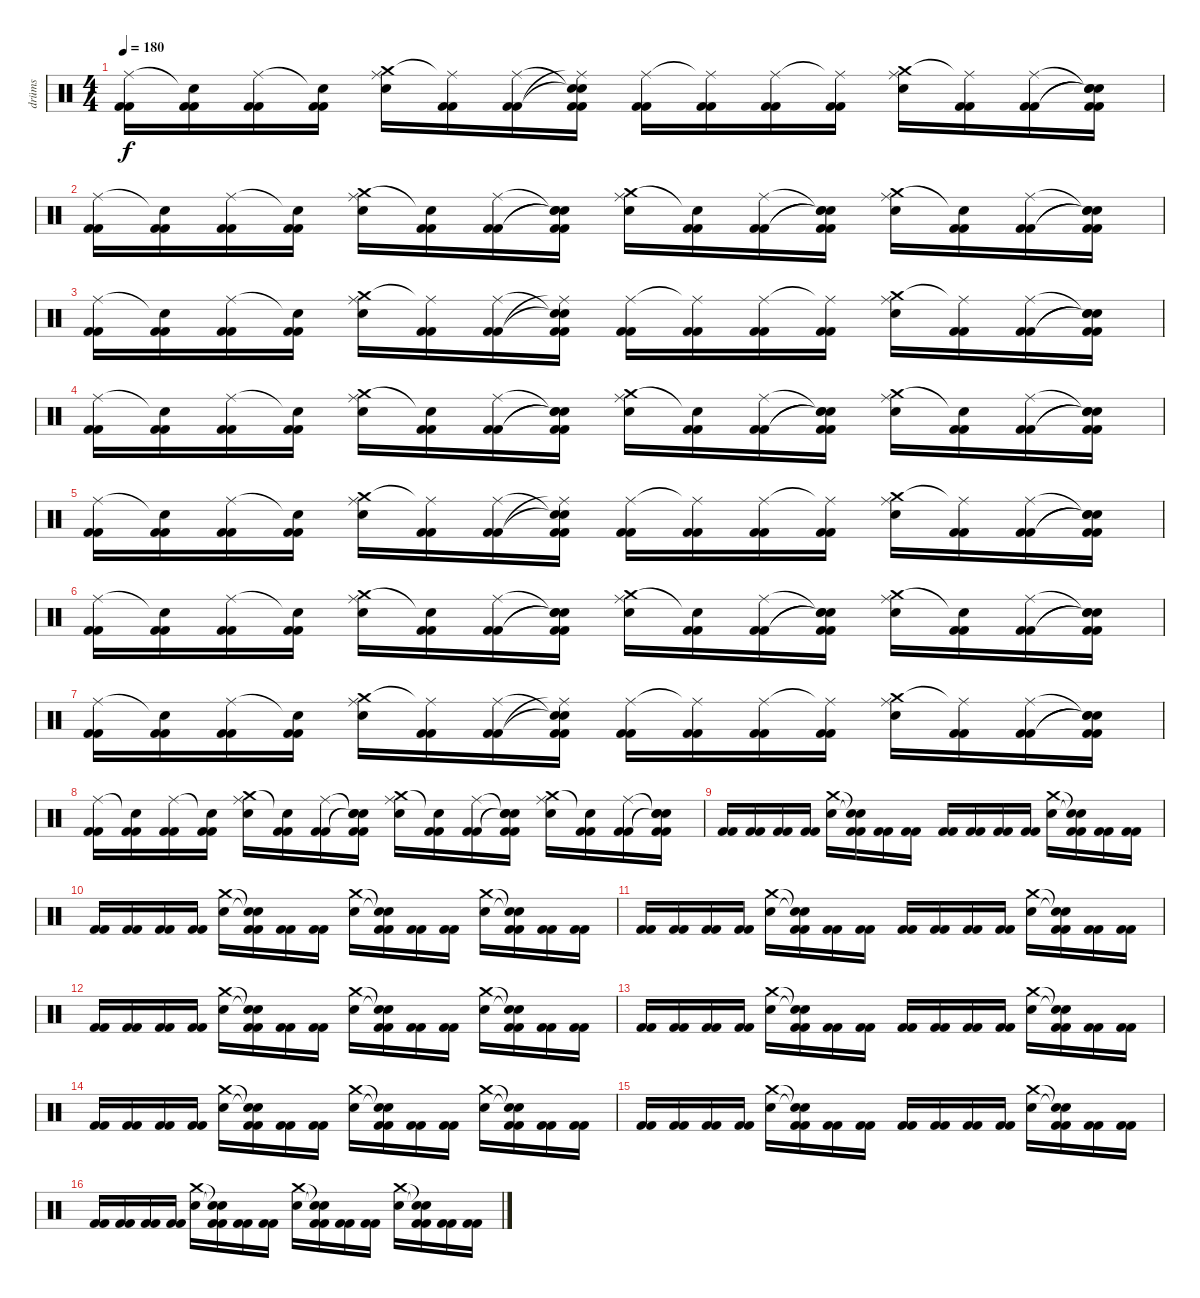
\track ("drüms" "drüms") {instrument percussion}
\staff {score}
\articulation defaults
\ts (4 4)
\tempo 180
\clef neutral
\ks c
("Ride (middle)" "Kick (hit) 2" "Kick (hit) 2").16{dy f} ("Snare (hit)"{t} "Kick (hit) 2" "Kick (hit) 2").16 ("Ride (middle)" "Kick (hit) 2" "Kick (hit) 2").16 ("Snare (hit)"{t} "Kick (hit) 2" "Kick (hit) 2").16 ("Crash medium (hit)" "Electric Snare (hit)" "Ride (middle)").16 ("Ride (middle)"{t} "Kick (hit) 2" "Kick (hit) 2").16 ("Ride (middle)" "Kick (hit) 2" "Kick (hit) 2").16 ("Snare (hit)"{t} "Snare (hit)"{t} "Ride (middle)"{t} "Kick (hit) 2" "Kick (hit) 2").16 ("Ride (middle)" "Kick (hit) 2" "Kick (hit) 2").16 ("Ride (middle)"{t} "Kick (hit) 2" "Kick (hit) 2").16 ("Ride (middle)" "Kick (hit) 2" "Kick (hit) 2").16 ("Ride (middle)"{t} "Kick (hit) 2" "Kick (hit) 2").16 ("Crash medium (hit)" "Electric Snare (hit)" "Ride (middle)").16 ("Ride (middle)"{t} "Kick (hit) 2" "Kick (hit) 2").16 ("Ride (middle)" "Kick (hit) 2" "Kick (hit) 2").16 ("Snare (hit)"{t} "Snare (hit)"{t} "Snare (hit)"{t} "Kick (hit) 2" "Kick (hit) 2").16 |
("Ride (middle)" "Kick (hit) 2" "Kick (hit) 2").16 ("Snare (hit)"{t} "Kick (hit) 2" "Kick (hit) 2").16 ("Ride (middle)" "Kick (hit) 2" "Kick (hit) 2").16 ("Snare (hit)"{t} "Kick (hit) 2" "Kick (hit) 2").16 ("Crash medium (hit)" "Electric Snare (hit)" "Ride (middle)").16 ("Snare (hit)"{t} "Kick (hit) 2" "Kick (hit) 2").16 ("Ride (middle)" "Kick (hit) 2" "Kick (hit) 2").16 ("Snare (hit)"{t} "Snare (hit)"{t} "Snare (hit)"{t} "Kick (hit) 2" "Kick (hit) 2").16 ("Crash medium (hit)" "Electric Snare (hit)" "Ride (middle)").16 ("Snare (hit)"{t} "Kick (hit) 2" "Kick (hit) 2").16 ("Ride (middle)" "Kick (hit) 2" "Kick (hit) 2").16 ("Snare (hit)"{t} "Snare (hit)"{t} "Snare (hit)"{t} "Kick (hit) 2" "Kick (hit) 2").16 ("Crash medium (hit)" "Electric Snare (hit)" "Ride (middle)").16 ("Snare (hit)"{t} "Kick (hit) 2" "Kick (hit) 2").16 ("Ride (middle)" "Kick (hit) 2" "Kick (hit) 2").16 ("Snare (hit)"{t} "Snare (hit)"{t} "Snare (hit)"{t} "Kick (hit) 2" "Kick (hit) 2").16 |
("Ride (middle)" "Kick (hit) 2" "Kick (hit) 2").16 ("Snare (hit)"{t} "Kick (hit) 2" "Kick (hit) 2").16 ("Ride (middle)" "Kick (hit) 2" "Kick (hit) 2").16 ("Snare (hit)"{t} "Kick (hit) 2" "Kick (hit) 2").16 ("Crash medium (hit)" "Electric Snare (hit)" "Ride (middle)").16 ("Ride (middle)"{t} "Kick (hit) 2" "Kick (hit) 2").16 ("Ride (middle)" "Kick (hit) 2" "Kick (hit) 2").16 ("Snare (hit)"{t} "Snare (hit)"{t} "Ride (middle)"{t} "Kick (hit) 2" "Kick (hit) 2").16 ("Ride (middle)" "Kick (hit) 2" "Kick (hit) 2").16 ("Ride (middle)"{t} "Kick (hit) 2" "Kick (hit) 2").16 ("Ride (middle)" "Kick (hit) 2" "Kick (hit) 2").16 ("Ride (middle)"{t} "Kick (hit) 2" "Kick (hit) 2").16 ("Crash medium (hit)" "Electric Snare (hit)" "Ride (middle)").16 ("Ride (middle)"{t} "Kick (hit) 2" "Kick (hit) 2").16 ("Ride (middle)" "Kick (hit) 2" "Kick (hit) 2").16 ("Snare (hit)"{t} "Snare (hit)"{t} "Snare (hit)"{t} "Kick (hit) 2" "Kick (hit) 2").16 |
("Ride (middle)" "Kick (hit) 2" "Kick (hit) 2").16 ("Snare (hit)"{t} "Kick (hit) 2" "Kick (hit) 2").16 ("Ride (middle)" "Kick (hit) 2" "Kick (hit) 2").16 ("Snare (hit)"{t} "Kick (hit) 2" "Kick (hit) 2").16 ("Crash medium (hit)" "Electric Snare (hit)" "Ride (middle)").16 ("Snare (hit)"{t} "Kick (hit) 2" "Kick (hit) 2").16 ("Ride (middle)" "Kick (hit) 2" "Kick (hit) 2").16 ("Snare (hit)"{t} "Snare (hit)"{t} "Snare (hit)"{t} "Kick (hit) 2" "Kick (hit) 2").16 ("Crash medium (hit)" "Electric Snare (hit)" "Ride (middle)").16 ("Snare (hit)"{t} "Kick (hit) 2" "Kick (hit) 2").16 ("Ride (middle)" "Kick (hit) 2" "Kick (hit) 2").16 ("Snare (hit)"{t} "Snare (hit)"{t} "Snare (hit)"{t} "Kick (hit) 2" "Kick (hit) 2").16 ("Crash medium (hit)" "Electric Snare (hit)" "Ride (middle)").16 ("Snare (hit)"{t} "Kick (hit) 2" "Kick (hit) 2").16 ("Ride (middle)" "Kick (hit) 2" "Kick (hit) 2").16 ("Snare (hit)"{t} "Snare (hit)"{t} "Snare (hit)"{t} "Kick (hit) 2" "Kick (hit) 2").16 |
("Ride (middle)" "Kick (hit) 2" "Kick (hit) 2").16 ("Snare (hit)"{t} "Kick (hit) 2" "Kick (hit) 2").16 ("Ride (middle)" "Kick (hit) 2" "Kick (hit) 2").16 ("Snare (hit)"{t} "Kick (hit) 2" "Kick (hit) 2").16 ("Crash medium (hit)" "Electric Snare (hit)" "Ride (middle)").16 ("Ride (middle)"{t} "Kick (hit) 2" "Kick (hit) 2").16 ("Ride (middle)" "Kick (hit) 2" "Kick (hit) 2").16 ("Snare (hit)"{t} "Snare (hit)"{t} "Ride (middle)"{t} "Kick (hit) 2" "Kick (hit) 2").16 ("Ride (middle)" "Kick (hit) 2" "Kick (hit) 2").16 ("Ride (middle)"{t} "Kick (hit) 2" "Kick (hit) 2").16 ("Ride (middle)" "Kick (hit) 2" "Kick (hit) 2").16 ("Ride (middle)"{t} "Kick (hit) 2" "Kick (hit) 2").16 ("Crash medium (hit)" "Electric Snare (hit)" "Ride (middle)").16 ("Ride (middle)"{t} "Kick (hit) 2" "Kick (hit) 2").16 ("Ride (middle)" "Kick (hit) 2" "Kick (hit) 2").16 ("Snare (hit)"{t} "Snare (hit)"{t} "Snare (hit)"{t} "Kick (hit) 2" "Kick (hit) 2").16 |
("Ride (middle)" "Kick (hit) 2" "Kick (hit) 2").16 ("Snare (hit)"{t} "Kick (hit) 2" "Kick (hit) 2").16 ("Ride (middle)" "Kick (hit) 2" "Kick (hit) 2").16 ("Snare (hit)"{t} "Kick (hit) 2" "Kick (hit) 2").16 ("Crash medium (hit)" "Electric Snare (hit)" "Ride (middle)").16 ("Snare (hit)"{t} "Kick (hit) 2" "Kick (hit) 2").16 ("Ride (middle)" "Kick (hit) 2" "Kick (hit) 2").16 ("Snare (hit)"{t} "Snare (hit)"{t} "Snare (hit)"{t} "Kick (hit) 2" "Kick (hit) 2").16 ("Crash medium (hit)" "Electric Snare (hit)" "Ride (middle)").16 ("Snare (hit)"{t} "Kick (hit) 2" "Kick (hit) 2").16 ("Ride (middle)" "Kick (hit) 2" "Kick (hit) 2").16 ("Snare (hit)"{t} "Snare (hit)"{t} "Snare (hit)"{t} "Kick (hit) 2" "Kick (hit) 2").16 ("Crash medium (hit)" "Electric Snare (hit)" "Ride (middle)").16 ("Snare (hit)"{t} "Kick (hit) 2" "Kick (hit) 2").16 ("Ride (middle)" "Kick (hit) 2" "Kick (hit) 2").16 ("Snare (hit)"{t} "Snare (hit)"{t} "Snare (hit)"{t} "Kick (hit) 2" "Kick (hit) 2").16 |
("Ride (middle)" "Kick (hit) 2" "Kick (hit) 2").16 ("Snare (hit)"{t} "Kick (hit) 2" "Kick (hit) 2").16 ("Ride (middle)" "Kick (hit) 2" "Kick (hit) 2").16 ("Snare (hit)"{t} "Kick (hit) 2" "Kick (hit) 2").16 ("Crash medium (hit)" "Electric Snare (hit)" "Ride (middle)").16 ("Ride (middle)"{t} "Kick (hit) 2" "Kick (hit) 2").16 ("Ride (middle)" "Kick (hit) 2" "Kick (hit) 2").16 ("Snare (hit)"{t} "Snare (hit)"{t} "Ride (middle)"{t} "Kick (hit) 2" "Kick (hit) 2").16 ("Ride (middle)" "Kick (hit) 2" "Kick (hit) 2").16 ("Ride (middle)"{t} "Kick (hit) 2" "Kick (hit) 2").16 ("Ride (middle)" "Kick (hit) 2" "Kick (hit) 2").16 ("Ride (middle)"{t} "Kick (hit) 2" "Kick (hit) 2").16 ("Crash medium (hit)" "Electric Snare (hit)" "Ride (middle)").16 ("Ride (middle)"{t} "Kick (hit) 2" "Kick (hit) 2").16 ("Ride (middle)" "Kick (hit) 2" "Kick (hit) 2").16 ("Snare (hit)"{t} "Snare (hit)"{t} "Snare (hit)"{t} "Kick (hit) 2" "Kick (hit) 2").16 |
("Ride (middle)" "Kick (hit) 2" "Kick (hit) 2").16 ("Snare (hit)"{t} "Kick (hit) 2" "Kick (hit) 2").16 ("Ride (middle)" "Kick (hit) 2" "Kick (hit) 2").16 ("Snare (hit)"{t} "Kick (hit) 2" "Kick (hit) 2").16 ("Crash medium (hit)" "Electric Snare (hit)" "Ride (middle)").16 ("Snare (hit)"{t} "Kick (hit) 2" "Kick (hit) 2").16 ("Ride (middle)" "Kick (hit) 2" "Kick (hit) 2").16 ("Snare (hit)"{t} "Snare (hit)"{t} "Snare (hit)"{t} "Kick (hit) 2" "Kick (hit) 2").16 ("Crash medium (hit)" "Electric Snare (hit)" "Ride (middle)").16 ("Snare (hit)"{t} "Kick (hit) 2" "Kick (hit) 2").16 ("Ride (middle)" "Kick (hit) 2" "Kick (hit) 2").16 ("Snare (hit)"{t} "Snare (hit)"{t} "Snare (hit)"{t} "Kick (hit) 2" "Kick (hit) 2").16 ("Crash medium (hit)" "Electric Snare (hit)" "Ride (middle)").16 ("Snare (hit)"{t} "Kick (hit) 2" "Kick (hit) 2").16 ("Ride (middle)" "Kick (hit) 2" "Kick (hit) 2").16 ("Snare (hit)"{t} "Snare (hit)"{t} "Snare (hit)"{t} "Kick (hit) 2" "Kick (hit) 2").16 |
("Kick (hit) 2" "Kick (hit) 2").16 ("Kick (hit) 2" "Kick (hit) 2").16 ("Kick (hit) 2" "Kick (hit) 2").16 ("Kick (hit) 2" "Kick (hit) 2").16 ("Crash medium (hit)" "Electric Snare (hit)").16 ("Snare (hit)"{t} "Snare (hit)"{t} "Kick (hit) 2" "Kick (hit) 2").16 ("Kick (hit) 2" "Kick (hit) 2").16 ("Kick (hit) 2" "Kick (hit) 2").16 ("Kick (hit) 2" "Kick (hit) 2").16 ("Kick (hit) 2" "Kick (hit) 2").16 ("Kick (hit) 2" "Kick (hit) 2").16 ("Kick (hit) 2" "Kick (hit) 2").16 ("Crash medium (hit)" "Electric Snare (hit)").16 ("Snare (hit)"{t} "Snare (hit)"{t} "Kick (hit) 2" "Kick (hit) 2").16 ("Kick (hit) 2" "Kick (hit) 2").16 ("Kick (hit) 2" "Kick (hit) 2").16 |
("Kick (hit) 2" "Kick (hit) 2").16 ("Kick (hit) 2" "Kick (hit) 2").16 ("Kick (hit) 2" "Kick (hit) 2").16 ("Kick (hit) 2" "Kick (hit) 2").16 ("Crash medium (hit)" "Electric Snare (hit)").16 ("Snare (hit)"{t} "Snare (hit)"{t} "Kick (hit) 2" "Kick (hit) 2").16 ("Kick (hit) 2" "Kick (hit) 2").16 ("Kick (hit) 2" "Kick (hit) 2").16 ("Crash medium (hit)" "Electric Snare (hit)").16 ("Snare (hit)"{t} "Snare (hit)"{t} "Kick (hit) 2" "Kick (hit) 2").16 ("Kick (hit) 2" "Kick (hit) 2").16 ("Kick (hit) 2" "Kick (hit) 2").16 ("Crash medium (hit)" "Electric Snare (hit)").16 ("Snare (hit)"{t} "Snare (hit)"{t} "Kick (hit) 2" "Kick (hit) 2").16 ("Kick (hit) 2" "Kick (hit) 2").16 ("Kick (hit) 2" "Kick (hit) 2").16 |
("Kick (hit) 2" "Kick (hit) 2").16 ("Kick (hit) 2" "Kick (hit) 2").16 ("Kick (hit) 2" "Kick (hit) 2").16 ("Kick (hit) 2" "Kick (hit) 2").16 ("Crash medium (hit)" "Electric Snare (hit)").16 ("Snare (hit)"{t} "Snare (hit)"{t} "Kick (hit) 2" "Kick (hit) 2").16 ("Kick (hit) 2" "Kick (hit) 2").16 ("Kick (hit) 2" "Kick (hit) 2").16 ("Kick (hit) 2" "Kick (hit) 2").16 ("Kick (hit) 2" "Kick (hit) 2").16 ("Kick (hit) 2" "Kick (hit) 2").16 ("Kick (hit) 2" "Kick (hit) 2").16 ("Crash medium (hit)" "Electric Snare (hit)").16 ("Snare (hit)"{t} "Snare (hit)"{t} "Kick (hit) 2" "Kick (hit) 2").16 ("Kick (hit) 2" "Kick (hit) 2").16 ("Kick (hit) 2" "Kick (hit) 2").16 |
("Kick (hit) 2" "Kick (hit) 2").16 ("Kick (hit) 2" "Kick (hit) 2").16 ("Kick (hit) 2" "Kick (hit) 2").16 ("Kick (hit) 2" "Kick (hit) 2").16 ("Crash medium (hit)" "Electric Snare (hit)").16 ("Snare (hit)"{t} "Snare (hit)"{t} "Kick (hit) 2" "Kick (hit) 2").16 ("Kick (hit) 2" "Kick (hit) 2").16 ("Kick (hit) 2" "Kick (hit) 2").16 ("Crash medium (hit)" "Electric Snare (hit)").16 ("Snare (hit)"{t} "Snare (hit)"{t} "Kick (hit) 2" "Kick (hit) 2").16 ("Kick (hit) 2" "Kick (hit) 2").16 ("Kick (hit) 2" "Kick (hit) 2").16 ("Crash medium (hit)" "Electric Snare (hit)").16 ("Snare (hit)"{t} "Snare (hit)"{t} "Kick (hit) 2" "Kick (hit) 2").16 ("Kick (hit) 2" "Kick (hit) 2").16 ("Kick (hit) 2" "Kick (hit) 2").16 |
("Kick (hit) 2" "Kick (hit) 2").16 ("Kick (hit) 2" "Kick (hit) 2").16 ("Kick (hit) 2" "Kick (hit) 2").16 ("Kick (hit) 2" "Kick (hit) 2").16 ("Crash medium (hit)" "Electric Snare (hit)").16 ("Snare (hit)"{t} "Snare (hit)"{t} "Kick (hit) 2" "Kick (hit) 2").16 ("Kick (hit) 2" "Kick (hit) 2").16 ("Kick (hit) 2" "Kick (hit) 2").16 ("Kick (hit) 2" "Kick (hit) 2").16 ("Kick (hit) 2" "Kick (hit) 2").16 ("Kick (hit) 2" "Kick (hit) 2").16 ("Kick (hit) 2" "Kick (hit) 2").16 ("Crash medium (hit)" "Electric Snare (hit)").16 ("Snare (hit)"{t} "Snare (hit)"{t} "Kick (hit) 2" "Kick (hit) 2").16 ("Kick (hit) 2" "Kick (hit) 2").16 ("Kick (hit) 2" "Kick (hit) 2").16 |
("Kick (hit) 2" "Kick (hit) 2").16 ("Kick (hit) 2" "Kick (hit) 2").16 ("Kick (hit) 2" "Kick (hit) 2").16 ("Kick (hit) 2" "Kick (hit) 2").16 ("Crash medium (hit)" "Electric Snare (hit)").16 ("Snare (hit)"{t} "Snare (hit)"{t} "Kick (hit) 2" "Kick (hit) 2").16 ("Kick (hit) 2" "Kick (hit) 2").16 ("Kick (hit) 2" "Kick (hit) 2").16 ("Crash medium (hit)" "Electric Snare (hit)").16 ("Snare (hit)"{t} "Snare (hit)"{t} "Kick (hit) 2" "Kick (hit) 2").16 ("Kick (hit) 2" "Kick (hit) 2").16 ("Kick (hit) 2" "Kick (hit) 2").16 ("Crash medium (hit)" "Electric Snare (hit)").16 ("Snare (hit)"{t} "Snare (hit)"{t} "Kick (hit) 2" "Kick (hit) 2").16 ("Kick (hit) 2" "Kick (hit) 2").16 ("Kick (hit) 2" "Kick (hit) 2").16 |
("Kick (hit) 2" "Kick (hit) 2").16 ("Kick (hit) 2" "Kick (hit) 2").16 ("Kick (hit) 2" "Kick (hit) 2").16 ("Kick (hit) 2" "Kick (hit) 2").16 ("Crash medium (hit)" "Electric Snare (hit)").16 ("Snare (hit)"{t} "Snare (hit)"{t} "Kick (hit) 2" "Kick (hit) 2").16 ("Kick (hit) 2" "Kick (hit) 2").16 ("Kick (hit) 2" "Kick (hit) 2").16 ("Kick (hit) 2" "Kick (hit) 2").16 ("Kick (hit) 2" "Kick (hit) 2").16 ("Kick (hit) 2" "Kick (hit) 2").16 ("Kick (hit) 2" "Kick (hit) 2").16 ("Crash medium (hit)" "Electric Snare (hit)").16 ("Snare (hit)"{t} "Snare (hit)"{t} "Kick (hit) 2" "Kick (hit) 2").16 ("Kick (hit) 2" "Kick (hit) 2").16 ("Kick (hit) 2" "Kick (hit) 2").16 |
("Kick (hit) 2" "Kick (hit) 2").16 ("Kick (hit) 2" "Kick (hit) 2").16 ("Kick (hit) 2" "Kick (hit) 2").16 ("Kick (hit) 2" "Kick (hit) 2").16 ("Crash medium (hit)" "Electric Snare (hit)").16 ("Snare (hit)"{t} "Snare (hit)"{t} "Kick (hit) 2" "Kick (hit) 2").16 ("Kick (hit) 2" "Kick (hit) 2").16 ("Kick (hit) 2" "Kick (hit) 2").16 ("Crash medium (hit)" "Electric Snare (hit)").16 ("Snare (hit)"{t} "Snare (hit)"{t} "Kick (hit) 2" "Kick (hit) 2").16 ("Kick (hit) 2" "Kick (hit) 2").16 ("Kick (hit) 2" "Kick (hit) 2").16 ("Crash medium (hit)" "Electric Snare (hit)").16 ("Snare (hit)"{t} "Snare (hit)"{t} "Kick (hit) 2" "Kick (hit) 2").16 ("Kick (hit) 2" "Kick (hit) 2").16 ("Kick (hit) 2" "Kick (hit) 2").16
